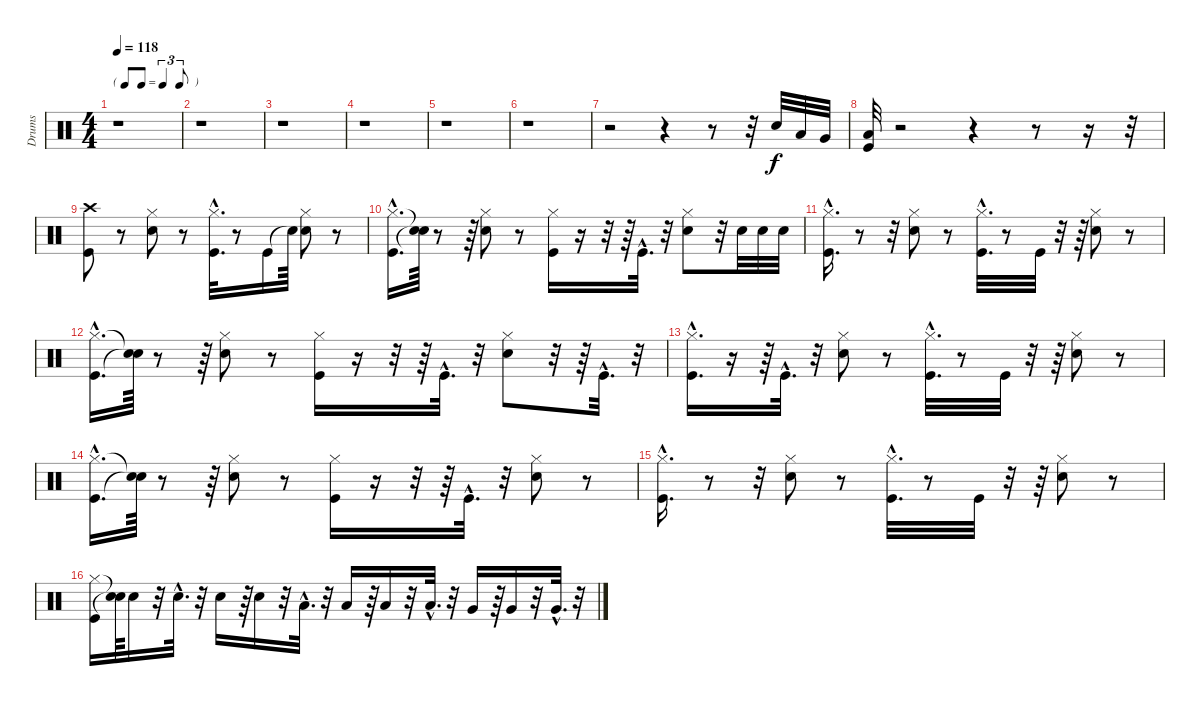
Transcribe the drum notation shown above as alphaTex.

\track ("Drums" "Drums") {instrument percussion}
\staff {score}
\articulation defaults
\ts (4 4)
\tf triplet8th
\tempo 118
\clef neutral
\ks c
r.1{dy f} |
r.1 |
r.1 |
r.1 |
r.1 |
r.1 |
r.2 r.4 r.8 r.32 "Snare (hit) 2".32 "Low Tom (hit)".32 "Very Low Tom (hit)".32 |
("Kick (hit)" "Low Floor Tom (hit)").32 r.2 r.4 r.8 r.16 r.32 |
("Crash high (hit)" "Kick (hit)").8 r.8 ("Hi-Hat (closed)" "Snare (hit) 2").8 r.8 ("Hi-Hat (closed)"{hac} "Kick (hit)"{hac}).32{d} r.8 "Kick (hit)".16 "Snare (hit)"{t}.64 ("Hi-Hat (closed)" "Snare (hit) 2").8 r.8 |
("Hi-Hat (closed)"{hac} "Kick (hit)"{hac}).16{d} ("Snare (hit)"{t} "Snare (hit)"{t}).64 r.8 r.64 ("Hi-Hat (closed)" "Snare (hit) 2").8 r.8 ("Hi-Hat (closed)" "Kick (hit)").16 r.16 r.32 r.64 "Kick (hit)"{hac}.32{d} r.32 ("Hi-Hat (closed)" "Snare (hit) 2").8 r.32 "Snare (hit) 2".32 "Snare (hit) 2".32 "Snare (hit) 2".32 |
("Hi-Hat (closed)"{hac} "Kick (hit)"{hac}).16{d} r.8 r.32 ("Hi-Hat (closed)" "Snare (hit) 2").8 r.8 ("Hi-Hat (closed)"{hac} "Kick (hit)"{hac}).32{d} r.8 "Kick (hit)".32 r.32 r.64 ("Hi-Hat (closed)" "Snare (hit) 2").8 r.8 |
("Hi-Hat (closed)"{hac} "Kick (hit)"{hac}).16{d} ("Snare (hit)"{t} "Snare (hit)"{t}).64 r.8 r.64 ("Snare (hit) 2" "Hi-Hat (closed)").8 r.8 ("Kick (hit)" "Hi-Hat (closed)").16 r.16 r.32 r.64 "Kick (hit)"{hac}.32{d} r.32 ("Hi-Hat (closed)" "Snare (hit) 2").8 r.32 r.64 "Kick (hit)"{hac}.32{d} r.32 |
("Kick (hit)"{hac} "Hi-Hat (closed)"{hac}).16{d} r.16 r.64 "Kick (hit)"{hac}.32{d} r.32 ("Snare (hit) 2" "Hi-Hat (closed)").8 r.8 ("Hi-Hat (closed)"{hac} "Kick (hit)"{hac}).32{d} r.8 "Kick (hit)".32 r.32 r.64 ("Hi-Hat (closed)" "Snare (hit) 2").8 r.8 |
("Hi-Hat (closed)"{hac} "Kick (hit)"{hac}).16{d} ("Snare (hit)"{t} "Snare (hit)"{t}).64 r.8 r.64 ("Snare (hit) 2" "Hi-Hat (closed)").8 r.8 ("Kick (hit)" "Hi-Hat (closed)").16 r.16 r.32 r.64 "Kick (hit)"{hac}.32{d} r.32 ("Hi-Hat (closed)" "Snare (hit) 2").8 r.8 |
("Kick (hit)"{hac} "Hi-Hat (closed)"{hac}).16{d} r.8 r.32 ("Snare (hit) 2" "Hi-Hat (closed)").8 r.8 ("Hi-Hat (closed)"{hac} "Kick (hit)"{hac}).32{d} r.8 "Kick (hit)".32 r.32 r.64 ("Hi-Hat (closed)" "Snare (hit) 2").8 r.8 |
("Hi-Hat (closed)" "Kick (hit)").16 ("Snare (hit)"{t} "Snare (hit)"{t}).64 "Snare (hit) 2".16 r.32 "Snare (hit) 2"{hac}.32{d} r.32 "Snare (hit) 2".16 r.64 "Snare (hit) 2".16 r.32 "Low Tom (hit)"{hac}.32{d} r.32 "Low Tom (hit)".16 r.64 "Low Tom (hit)".16 r.32 "Low Tom (hit)"{hac}.32{d} r.32 "Very Low Tom (hit)".16 r.64 "Very Low Tom (hit)".16 r.32 "Very Low Tom (hit)"{hac}.32{d} r.32
